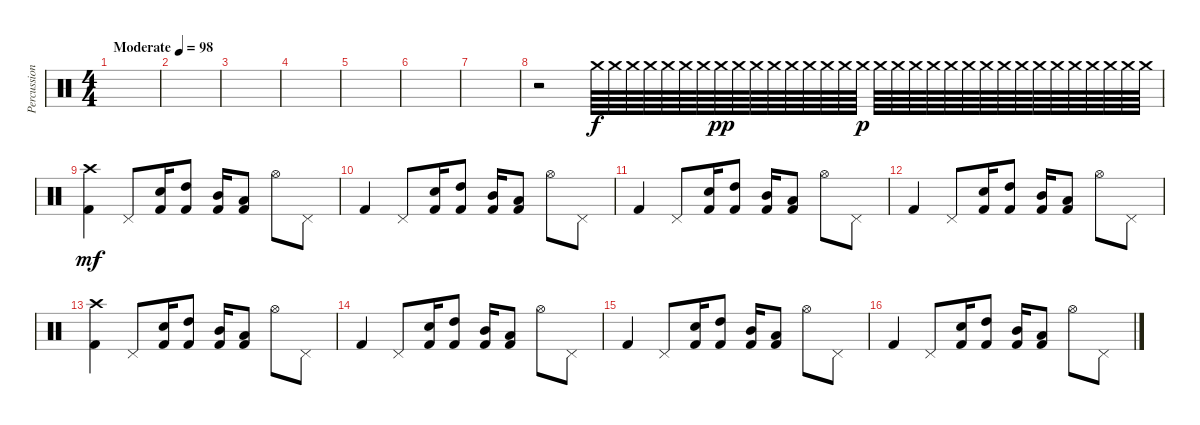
\track ("Percussion" "Percussion") {instrument percussion}
\staff {score}
\articulation defaults
\ts (4 4)
\tempo (98 "Moderate")
\clef neutral
\ks c
|
|
|
|
|
|
|
r.2 "Crash medium (hit)".64{volume 16} "Crash medium (hit)".64 "Crash medium (hit)".64 "Crash medium (hit)".64 "Crash medium (hit)".64 "Crash medium (hit)".64 "Crash medium (hit)".64 "Crash medium (hit)".64{dy pp} "Crash medium (hit)".64 "Crash medium (hit)".64 "Crash medium (hit)".64 "Crash medium (hit)".64 "Crash medium (hit)".64 "Crash medium (hit)".64 "Crash medium (hit)".64 "Crash medium (hit)".64{dy p} "Crash medium (hit)".64 "Crash medium (hit)".64 "Crash medium (hit)".64 "Crash medium (hit)".64 "Crash medium (hit)".64 "Crash medium (hit)".64 "Crash medium (hit)".64 "Crash medium (hit)".64 "Crash medium (hit)".64 "Crash medium (hit)".64 "Crash medium (hit)".64 "Crash medium (hit)".64 "Crash medium (hit)".64 "Crash medium (hit)".64 "Crash medium (hit)".64 "Crash medium (hit)".64 |
("Crash high (hit)" "Kick (hit) 2").4{dy mf volume 11} "Pedal Hi-Hat (hit)".8 ("Snare (hit) 2" "Kick (hit) 2").16 ("High Tom (hit)" "Kick (hit) 2").8 ("Mid Tom (hit)" "Kick (hit) 2").16 ("Low Tom (hit)" "Kick (hit) 2").8 "Hi-Hat (open)".8 "Pedal Hi-Hat (hit)".8 |
"Kick (hit) 2".4 "Pedal Hi-Hat (hit)".8 ("Snare (hit) 2" "Kick (hit) 2").16 ("High Tom (hit)" "Kick (hit) 2").8 ("Mid Tom (hit)" "Kick (hit) 2").16 ("Low Tom (hit)" "Kick (hit) 2").8 "Hi-Hat (open)".8 "Pedal Hi-Hat (hit)".8 |
"Kick (hit) 2".4 "Pedal Hi-Hat (hit)".8 ("Snare (hit) 2" "Kick (hit) 2").16 ("High Tom (hit)" "Kick (hit) 2").8 ("Mid Tom (hit)" "Kick (hit) 2").16 ("Low Tom (hit)" "Kick (hit) 2").8 "Hi-Hat (open)".8 "Pedal Hi-Hat (hit)".8 |
"Kick (hit) 2".4 "Pedal Hi-Hat (hit)".8 ("Snare (hit) 2" "Kick (hit) 2").16 ("High Tom (hit)" "Kick (hit) 2").8 ("Mid Tom (hit)" "Kick (hit) 2").16 ("Low Tom (hit)" "Kick (hit) 2").8 "Hi-Hat (open)".8 "Pedal Hi-Hat (hit)".8 |
("Crash high (hit)" "Kick (hit) 2").4 "Pedal Hi-Hat (hit)".8 ("Snare (hit) 2" "Kick (hit) 2").16 ("High Tom (hit)" "Kick (hit) 2").8 ("Mid Tom (hit)" "Kick (hit) 2").16 ("Low Tom (hit)" "Kick (hit) 2").8 "Hi-Hat (open)".8 "Pedal Hi-Hat (hit)".8 |
"Kick (hit) 2".4 "Pedal Hi-Hat (hit)".8 ("Snare (hit) 2" "Kick (hit) 2").16 ("High Tom (hit)" "Kick (hit) 2").8 ("Mid Tom (hit)" "Kick (hit) 2").16 ("Low Tom (hit)" "Kick (hit) 2").8 "Hi-Hat (open)".8 "Pedal Hi-Hat (hit)".8 |
"Kick (hit) 2".4 "Pedal Hi-Hat (hit)".8 ("Snare (hit) 2" "Kick (hit) 2").16 ("High Tom (hit)" "Kick (hit) 2").8 ("Mid Tom (hit)" "Kick (hit) 2").16 ("Low Tom (hit)" "Kick (hit) 2").8 "Hi-Hat (open)".8 "Pedal Hi-Hat (hit)".8 |
"Kick (hit) 2".4 "Pedal Hi-Hat (hit)".8 ("Snare (hit) 2" "Kick (hit) 2").16 ("High Tom (hit)" "Kick (hit) 2").8 ("Mid Tom (hit)" "Kick (hit) 2").16 ("Low Tom (hit)" "Kick (hit) 2").8 "Hi-Hat (open)".8 "Pedal Hi-Hat (hit)".8
